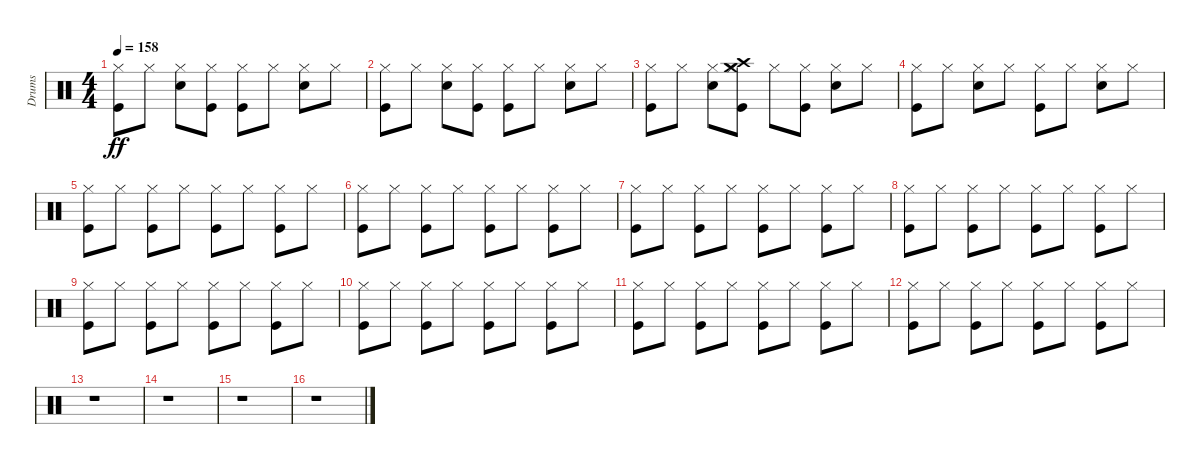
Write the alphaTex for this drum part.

\track ("Drums" "Drums") {instrument percussion}
\staff {score}
\articulation defaults
\ts (4 4)
\tempo 158
\clef neutral
\ks c
("Kick (hit)" "Hi-Hat (closed)").8{dy ff} "Hi-Hat (closed)".8 ("Hi-Hat (closed)" "Snare (hit) 2").8 ("Hi-Hat (closed)" "Kick (hit)").8 ("Kick (hit)" "Hi-Hat (closed)").8 "Hi-Hat (closed)".8 ("Hi-Hat (closed)" "Snare (hit) 2").8 "Hi-Hat (closed)".8 |
("Kick (hit)" "Hi-Hat (closed)").8 "Hi-Hat (closed)".8 ("Snare (hit) 2" "Hi-Hat (closed)").8 ("Kick (hit)" "Hi-Hat (closed)").8 ("Hi-Hat (closed)" "Kick (hit)").8 "Hi-Hat (closed)".8 ("Hi-Hat (closed)" "Snare (hit) 2").8 "Hi-Hat (closed)".8 |
("Hi-Hat (closed)" "Kick (hit)").8 "Hi-Hat (closed)".8 ("Snare (hit) 2" "Hi-Hat (closed)").8 ("Crash high (hit)" "Hi-Hat (closed)" "Crash medium (hit)" "Kick (hit)").8 "Hi-Hat (closed)".8 ("Hi-Hat (closed)" "Kick (hit)").8 ("Hi-Hat (closed)" "Snare (hit) 2").8 "Hi-Hat (closed)".8 |
("Hi-Hat (closed)" "Kick (hit)").8 "Hi-Hat (closed)".8 ("Hi-Hat (closed)" "Snare (hit) 2").8 "Hi-Hat (closed)".8 ("Hi-Hat (closed)" "Kick (hit)").8 "Hi-Hat (closed)".8 ("Hi-Hat (closed)" "Snare (hit) 2").8 "Hi-Hat (closed)".8 |
("Hi-Hat (closed)" "Kick (hit)").8 "Hi-Hat (closed)".8 ("Kick (hit)" "Hi-Hat (closed)").8 "Hi-Hat (closed)".8 ("Kick (hit)" "Hi-Hat (closed)").8 "Hi-Hat (closed)".8 ("Hi-Hat (closed)" "Kick (hit)").8 "Hi-Hat (closed)".8 |
("Kick (hit)" "Hi-Hat (closed)").8 "Hi-Hat (closed)".8 ("Kick (hit)" "Hi-Hat (closed)").8 "Hi-Hat (closed)".8 ("Kick (hit)" "Hi-Hat (closed)").8 "Hi-Hat (closed)".8 ("Kick (hit)" "Hi-Hat (closed)").8 "Hi-Hat (closed)".8 |
("Kick (hit)" "Hi-Hat (closed)").8 "Hi-Hat (closed)".8 ("Kick (hit)" "Hi-Hat (closed)").8 "Hi-Hat (closed)".8 ("Kick (hit)" "Hi-Hat (closed)").8 "Hi-Hat (closed)".8 ("Kick (hit)" "Hi-Hat (closed)").8 "Hi-Hat (closed)".8 |
("Kick (hit)" "Hi-Hat (closed)").8 "Hi-Hat (closed)".8 ("Kick (hit)" "Hi-Hat (closed)").8 "Hi-Hat (closed)".8 ("Kick (hit)" "Hi-Hat (closed)").8 "Hi-Hat (closed)".8 ("Kick (hit)" "Hi-Hat (closed)").8 "Hi-Hat (closed)".8 |
("Kick (hit)" "Hi-Hat (closed)").8 "Hi-Hat (closed)".8 ("Kick (hit)" "Hi-Hat (closed)").8 "Hi-Hat (closed)".8 ("Kick (hit)" "Hi-Hat (closed)").8 "Hi-Hat (closed)".8 ("Kick (hit)" "Hi-Hat (closed)").8 "Hi-Hat (closed)".8 |
("Kick (hit)" "Hi-Hat (closed)").8 "Hi-Hat (closed)".8 ("Kick (hit)" "Hi-Hat (closed)").8 "Hi-Hat (closed)".8 ("Kick (hit)" "Hi-Hat (closed)").8 "Hi-Hat (closed)".8 ("Kick (hit)" "Hi-Hat (closed)").8 "Hi-Hat (closed)".8 |
("Kick (hit)" "Hi-Hat (closed)").8 "Hi-Hat (closed)".8 ("Kick (hit)" "Hi-Hat (closed)").8 "Hi-Hat (closed)".8 ("Kick (hit)" "Hi-Hat (closed)").8 "Hi-Hat (closed)".8 ("Kick (hit)" "Hi-Hat (closed)").8 "Hi-Hat (closed)".8 |
("Kick (hit)" "Hi-Hat (closed)").8 "Hi-Hat (closed)".8 ("Kick (hit)" "Hi-Hat (closed)").8 "Hi-Hat (closed)".8 ("Kick (hit)" "Hi-Hat (closed)").8 "Hi-Hat (closed)".8 ("Kick (hit)" "Hi-Hat (closed)").8 "Hi-Hat (closed)".8 |
r.1 |
r.1 |
r.1 |
r.1
